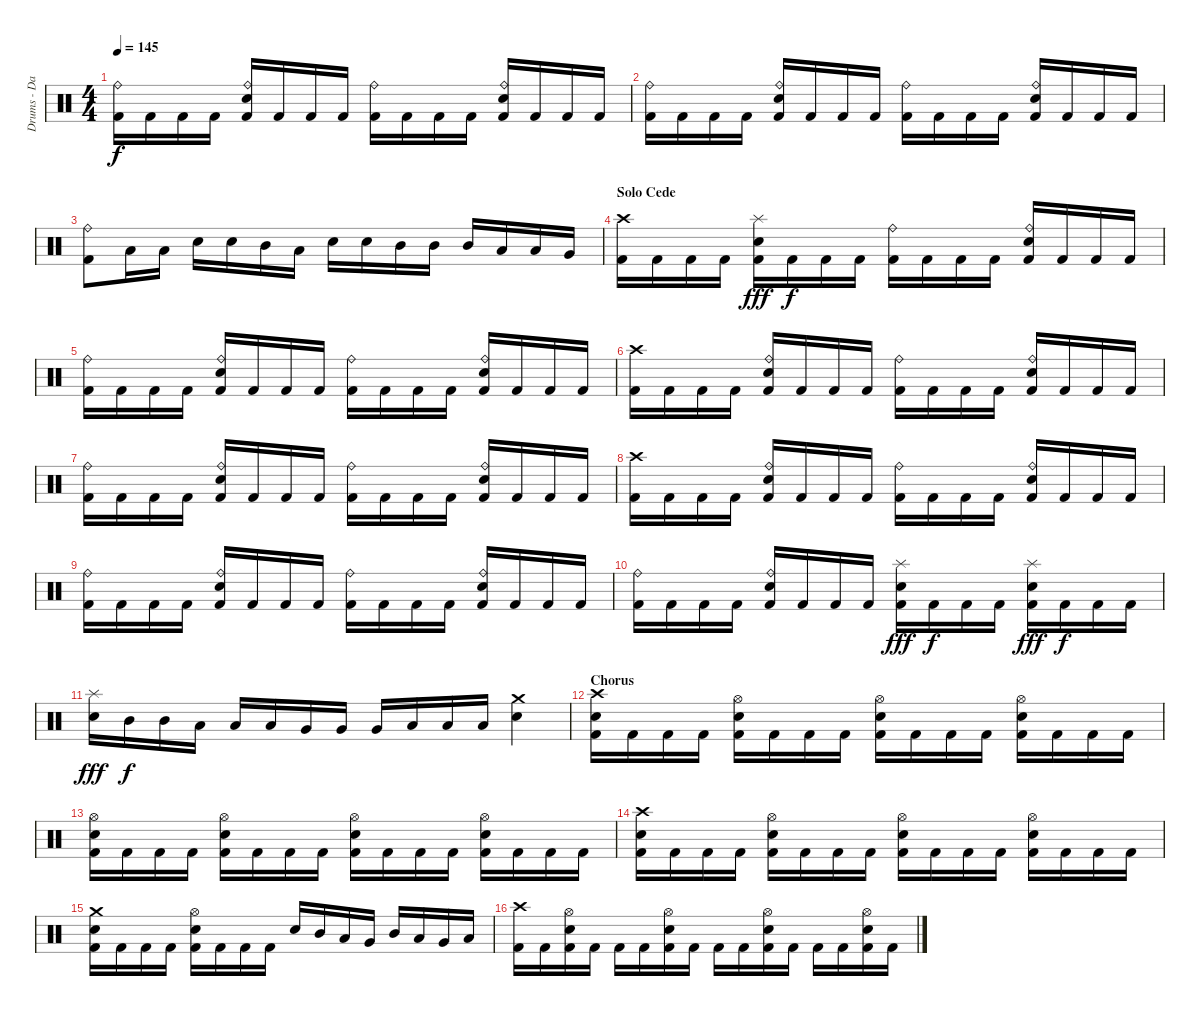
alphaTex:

\track ("Drums - Daniel Zimmermann" "Drums - Da") {instrument percussion}
\staff {score}
\articulation defaults
\ts (4 4)
\tempo 145
\clef neutral
\ks c
("Kick (hit) 2" "Ride (bell)").16{dy f} "Kick (hit) 2".16 "Kick (hit) 2".16 "Kick (hit) 2".16 ("Kick (hit) 2" "Electric Snare (hit)" "Ride (bell)").16 "Kick (hit) 2".16 "Kick (hit) 2".16 "Kick (hit) 2".16 ("Kick (hit) 2" "Ride (bell)").16 "Kick (hit) 2".16 "Kick (hit) 2".16 "Kick (hit) 2".16 ("Kick (hit) 2" "Electric Snare (hit)" "Ride (bell)").16 "Kick (hit) 2".16 "Kick (hit) 2".16 "Kick (hit) 2".16 |
("Kick (hit) 2" "Ride (bell)").16 "Kick (hit) 2".16 "Kick (hit) 2".16 "Kick (hit) 2".16 ("Kick (hit) 2" "Electric Snare (hit)" "Ride (bell)").16 "Kick (hit) 2".16 "Kick (hit) 2".16 "Kick (hit) 2".16 ("Kick (hit) 2" "Ride (bell)").16 "Kick (hit) 2".16 "Kick (hit) 2".16 "Kick (hit) 2".16 ("Kick (hit) 2" "Electric Snare (hit)" "Ride (bell)").16 "Kick (hit) 2".16 "Kick (hit) 2".16 "Kick (hit) 2".16 |
("Kick (hit) 2" "Ride (bell)").8 "Low Tom (hit)".16 "Low Tom (hit)".16 "Electric Snare (hit)".16 "Electric Snare (hit)".16 "Mid Tom (hit)".16 "Low Tom (hit)".16 "Electric Snare (hit)".16 "Electric Snare (hit)".16 "Mid Tom (hit)".16 "Mid Tom (hit)".16 "Mid Tom (hit)".16 "Low Tom (hit)".16 "Low Tom (hit)".16 "Very Low Tom (hit)".16 |
\section ("" "Solo Cede")
("Kick (hit) 2" "Crash high (hit)").16 "Kick (hit) 2".16 "Kick (hit) 2".16 "Kick (hit) 2".16 ("Kick (hit) 2" "Electric Snare (hit)" "Splash (hit)").16{dy fff} "Kick (hit) 2".16{dy f} "Kick (hit) 2".16 "Kick (hit) 2".16 ("Kick (hit) 2" "Ride (bell)").16 "Kick (hit) 2".16 "Kick (hit) 2".16 "Kick (hit) 2".16 ("Kick (hit) 2" "Electric Snare (hit)" "Ride (bell)").16 "Kick (hit) 2".16 "Kick (hit) 2".16 "Kick (hit) 2".16 |
("Kick (hit) 2" "Ride (bell)").16 "Kick (hit) 2".16 "Kick (hit) 2".16 "Kick (hit) 2".16 ("Kick (hit) 2" "Electric Snare (hit)" "Ride (bell)").16 "Kick (hit) 2".16 "Kick (hit) 2".16 "Kick (hit) 2".16 ("Kick (hit) 2" "Ride (bell)").16 "Kick (hit) 2".16 "Kick (hit) 2".16 "Kick (hit) 2".16 ("Kick (hit) 2" "Electric Snare (hit)" "Ride (bell)").16 "Kick (hit) 2".16 "Kick (hit) 2".16 "Kick (hit) 2".16 |
("Kick (hit) 2" "Crash high (hit)").16 "Kick (hit) 2".16 "Kick (hit) 2".16 "Kick (hit) 2".16 ("Kick (hit) 2" "Electric Snare (hit)" "Ride (bell)").16 "Kick (hit) 2".16 "Kick (hit) 2".16 "Kick (hit) 2".16 ("Kick (hit) 2" "Ride (bell)").16 "Kick (hit) 2".16 "Kick (hit) 2".16 "Kick (hit) 2".16 ("Kick (hit) 2" "Electric Snare (hit)" "Ride (bell)").16 "Kick (hit) 2".16 "Kick (hit) 2".16 "Kick (hit) 2".16 |
("Kick (hit) 2" "Ride (bell)").16 "Kick (hit) 2".16 "Kick (hit) 2".16 "Kick (hit) 2".16 ("Kick (hit) 2" "Electric Snare (hit)" "Ride (bell)").16 "Kick (hit) 2".16 "Kick (hit) 2".16 "Kick (hit) 2".16 ("Kick (hit) 2" "Ride (bell)").16 "Kick (hit) 2".16 "Kick (hit) 2".16 "Kick (hit) 2".16 ("Kick (hit) 2" "Electric Snare (hit)" "Ride (bell)").16 "Kick (hit) 2".16 "Kick (hit) 2".16 "Kick (hit) 2".16 |
("Kick (hit) 2" "Crash high (hit)").16 "Kick (hit) 2".16 "Kick (hit) 2".16 "Kick (hit) 2".16 ("Kick (hit) 2" "Electric Snare (hit)" "Ride (bell)").16 "Kick (hit) 2".16 "Kick (hit) 2".16 "Kick (hit) 2".16 ("Kick (hit) 2" "Ride (bell)").16 "Kick (hit) 2".16 "Kick (hit) 2".16 "Kick (hit) 2".16 ("Kick (hit) 2" "Electric Snare (hit)" "Ride (bell)").16 "Kick (hit) 2".16 "Kick (hit) 2".16 "Kick (hit) 2".16 |
("Kick (hit) 2" "Ride (bell)").16 "Kick (hit) 2".16 "Kick (hit) 2".16 "Kick (hit) 2".16 ("Kick (hit) 2" "Electric Snare (hit)" "Ride (bell)").16 "Kick (hit) 2".16 "Kick (hit) 2".16 "Kick (hit) 2".16 ("Kick (hit) 2" "Ride (bell)").16 "Kick (hit) 2".16 "Kick (hit) 2".16 "Kick (hit) 2".16 ("Kick (hit) 2" "Electric Snare (hit)" "Ride (bell)").16 "Kick (hit) 2".16 "Kick (hit) 2".16 "Kick (hit) 2".16 |
("Kick (hit) 2" "Ride (bell)").16 "Kick (hit) 2".16 "Kick (hit) 2".16 "Kick (hit) 2".16 ("Kick (hit) 2" "Electric Snare (hit)" "Ride (bell)").16 "Kick (hit) 2".16 "Kick (hit) 2".16 "Kick (hit) 2".16 ("Kick (hit) 2" "Electric Snare (hit)" "Splash (hit)").16{dy fff} "Kick (hit) 2".16{dy f} "Kick (hit) 2".16 "Kick (hit) 2".16 ("Kick (hit) 2" "Electric Snare (hit)" "Splash (hit)").16{dy fff} "Kick (hit) 2".16{dy f} "Kick (hit) 2".16 "Kick (hit) 2".16 |
("Electric Snare (hit)" "Splash (hit)").16{dy fff} "Mid Tom (hit)".16{dy f} "Mid Tom (hit)".16 "Low Tom (hit)".16 "Low Tom (hit)".16 "Low Tom (hit)".16 "Very Low Tom (hit)".16 "Very Low Tom (hit)".16 "Very Low Tom (hit)".16 "Low Floor Tom (hit)".16 "Low Floor Tom (hit)".16 "Low Floor Tom (hit)".16 ("Electric Snare (hit)" "Crash medium (hit)").4 |
\section ("" "Chorus")
("Kick (hit) 2" "Electric Snare (hit)" "Crash high (hit)").16 "Kick (hit) 2".16 "Kick (hit) 2".16 "Kick (hit) 2".16 ("Kick (hit) 2" "Electric Snare (hit)" "Hi-Hat (open)").16 "Kick (hit) 2".16 "Kick (hit) 2".16 "Kick (hit) 2".16 ("Kick (hit) 2" "Electric Snare (hit)" "Hi-Hat (open)").16 "Kick (hit) 2".16 "Kick (hit) 2".16 "Kick (hit) 2".16 ("Kick (hit) 2" "Electric Snare (hit)" "Hi-Hat (open)").16 "Kick (hit) 2".16 "Kick (hit) 2".16 "Kick (hit) 2".16 |
("Kick (hit) 2" "Electric Snare (hit)" "Hi-Hat (open)").16 "Kick (hit) 2".16 "Kick (hit) 2".16 "Kick (hit) 2".16 ("Kick (hit) 2" "Electric Snare (hit)" "Hi-Hat (open)").16 "Kick (hit) 2".16 "Kick (hit) 2".16 "Kick (hit) 2".16 ("Kick (hit) 2" "Electric Snare (hit)" "Hi-Hat (open)").16 "Kick (hit) 2".16 "Kick (hit) 2".16 "Kick (hit) 2".16 ("Kick (hit) 2" "Electric Snare (hit)" "Hi-Hat (open)").16 "Kick (hit) 2".16 "Kick (hit) 2".16 "Kick (hit) 2".16 |
("Kick (hit) 2" "Electric Snare (hit)" "Crash high (hit)").16 "Kick (hit) 2".16 "Kick (hit) 2".16 "Kick (hit) 2".16 ("Kick (hit) 2" "Electric Snare (hit)" "Hi-Hat (open)").16 "Kick (hit) 2".16 "Kick (hit) 2".16 "Kick (hit) 2".16 ("Kick (hit) 2" "Electric Snare (hit)" "Hi-Hat (open)").16 "Kick (hit) 2".16 "Kick (hit) 2".16 "Kick (hit) 2".16 ("Kick (hit) 2" "Electric Snare (hit)" "Hi-Hat (open)").16 "Kick (hit) 2".16 "Kick (hit) 2".16 "Kick (hit) 2".16 |
("Kick (hit) 2" "Electric Snare (hit)" "Crash medium (hit)").16 "Kick (hit) 2".16 "Kick (hit) 2".16 "Kick (hit) 2".16 ("Kick (hit) 2" "Electric Snare (hit)" "Hi-Hat (open)").16 "Kick (hit) 2".16 "Kick (hit) 2".16 "Kick (hit) 2".16 "Electric Snare (hit)".16 "Mid Tom (hit)".16 "Low Tom (hit)".16 "Very Low Tom (hit)".16 "Mid Tom (hit)".16 "Low Tom (hit)".16 "Very Low Tom (hit)".16 "Low Floor Tom (hit)".16 |
("Kick (hit) 2" "Crash high (hit)").16 "Kick (hit) 2".16 ("Kick (hit) 2" "Electric Snare (hit)" "Hi-Hat (open)").16 "Kick (hit) 2".16 "Kick (hit) 2".16 "Kick (hit) 2".16 ("Kick (hit) 2" "Electric Snare (hit)" "Hi-Hat (open)").16 "Kick (hit) 2".16 "Kick (hit) 2".16 "Kick (hit) 2".16 ("Kick (hit) 2" "Electric Snare (hit)" "Hi-Hat (open)").16 "Kick (hit) 2".16 "Kick (hit) 2".16 "Kick (hit) 2".16 ("Kick (hit) 2" "Electric Snare (hit)" "Hi-Hat (open)").16 "Kick (hit) 2".16
